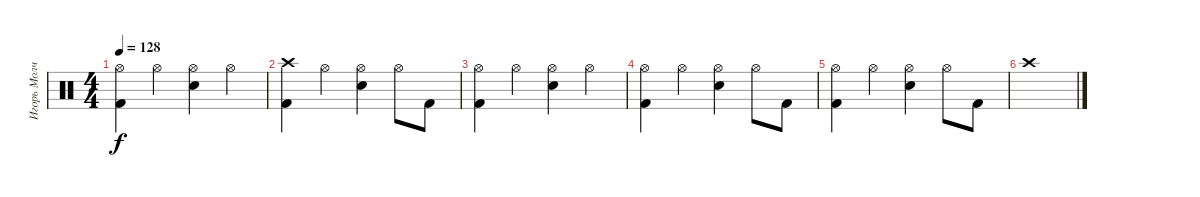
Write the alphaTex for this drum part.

\track ("Игорь Молчанов" "Игорь Молч") {instrument percussion}
\staff {score}
\articulation defaults
\ts (4 4)
\tempo 128
\clef neutral
\ks c
("Hi-Hat (open)" "Kick (hit) 2").4{dy f} "Hi-Hat (open)".4 ("Snare (hit) 2" "Hi-Hat (open)").4 "Hi-Hat (open)".4 |
("Kick (hit) 2" "Crash high (hit)").4 "Hi-Hat (open)".4 ("Snare (hit) 2" "Hi-Hat (open)").4 "Hi-Hat (open)".8 "Kick (hit) 2".8 |
("Hi-Hat (open)" "Kick (hit) 2").4 "Hi-Hat (open)".4 ("Snare (hit) 2" "Hi-Hat (open)").4 "Hi-Hat (open)".4 |
("Hi-Hat (open)" "Kick (hit) 2").4 "Hi-Hat (open)".4 ("Snare (hit) 2" "Hi-Hat (open)").4 "Hi-Hat (open)".8 "Kick (hit) 2".8 |
("Hi-Hat (open)" "Kick (hit) 2").4 "Hi-Hat (open)".4 ("Snare (hit) 2" "Hi-Hat (open)").4 "Hi-Hat (open)".8 "Kick (hit) 2".8 |
"Crash high (hit)".1
